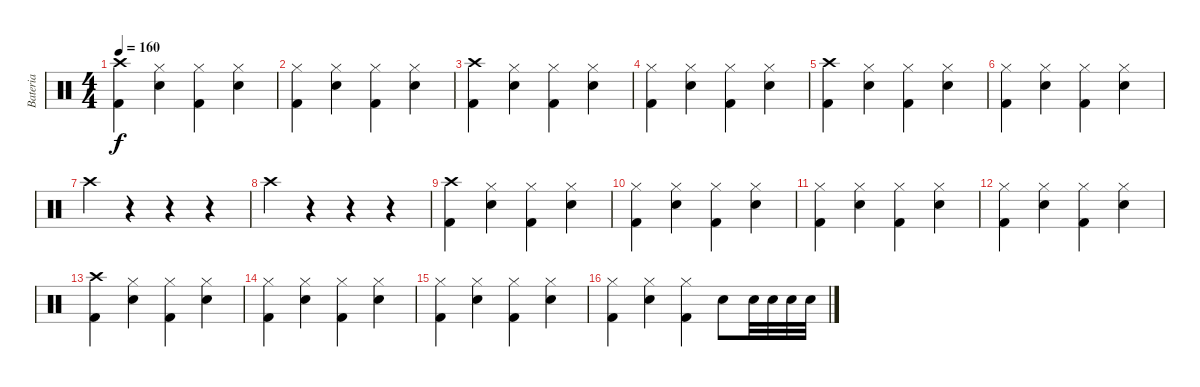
\track ("Bateria" "Bateria") {instrument percussion}
\staff {score}
\articulation defaults
\ts (4 4)
\tempo 160
\clef neutral
\ks c
("Crash high (hit)" "Kick (hit) 2").4{dy f} ("Hi-Hat (closed)" "Snare (hit) 2").4 ("Hi-Hat (closed)" "Kick (hit) 2").4 ("Hi-Hat (closed)" "Snare (hit) 2").4 |
("Hi-Hat (closed)" "Kick (hit) 2").4 ("Hi-Hat (closed)" "Snare (hit) 2").4 ("Hi-Hat (closed)" "Kick (hit) 2").4 ("Hi-Hat (closed)" "Snare (hit) 2").4 |
("Crash high (hit)" "Kick (hit) 2").4 ("Hi-Hat (closed)" "Snare (hit) 2").4 ("Hi-Hat (closed)" "Kick (hit) 2").4 ("Hi-Hat (closed)" "Snare (hit) 2").4 |
("Hi-Hat (closed)" "Kick (hit) 2").4 ("Hi-Hat (closed)" "Snare (hit) 2").4 ("Hi-Hat (closed)" "Kick (hit) 2").4 ("Hi-Hat (closed)" "Snare (hit) 2").4 |
("Crash high (hit)" "Kick (hit) 2").4 ("Hi-Hat (closed)" "Snare (hit) 2").4 ("Hi-Hat (closed)" "Kick (hit) 2").4 ("Hi-Hat (closed)" "Snare (hit) 2").4 |
("Hi-Hat (closed)" "Kick (hit) 2").4 ("Hi-Hat (closed)" "Snare (hit) 2").4 ("Hi-Hat (closed)" "Kick (hit) 2").4 ("Hi-Hat (closed)" "Snare (hit) 2").4 |
"Crash high (hit)".4 r.4 r.4 r.4 |
"Crash high (hit)".4 r.4 r.4 r.4 |
("Crash high (hit)" "Kick (hit) 2").4 ("Hi-Hat (closed)" "Snare (hit) 2").4 ("Hi-Hat (closed)" "Kick (hit) 2").4 ("Hi-Hat (closed)" "Snare (hit) 2").4 |
("Hi-Hat (closed)" "Kick (hit) 2").4 ("Hi-Hat (closed)" "Snare (hit) 2").4 ("Hi-Hat (closed)" "Kick (hit) 2").4 ("Hi-Hat (closed)" "Snare (hit) 2").4 |
("Hi-Hat (closed)" "Kick (hit) 2").4 ("Hi-Hat (closed)" "Snare (hit) 2").4 ("Hi-Hat (closed)" "Kick (hit) 2").4 ("Hi-Hat (closed)" "Snare (hit) 2").4 |
("Hi-Hat (closed)" "Kick (hit) 2").4 ("Hi-Hat (closed)" "Snare (hit) 2").4 ("Hi-Hat (closed)" "Kick (hit) 2").4 ("Hi-Hat (closed)" "Snare (hit) 2").4 |
("Crash high (hit)" "Kick (hit) 2").4 ("Hi-Hat (closed)" "Snare (hit) 2").4 ("Hi-Hat (closed)" "Kick (hit) 2").4 ("Hi-Hat (closed)" "Snare (hit) 2").4 |
("Hi-Hat (closed)" "Kick (hit) 2").4 ("Hi-Hat (closed)" "Snare (hit) 2").4 ("Hi-Hat (closed)" "Kick (hit) 2").4 ("Hi-Hat (closed)" "Snare (hit) 2").4 |
("Hi-Hat (closed)" "Kick (hit) 2").4 ("Hi-Hat (closed)" "Snare (hit) 2").4 ("Hi-Hat (closed)" "Kick (hit) 2").4 ("Hi-Hat (closed)" "Snare (hit) 2").4 |
("Hi-Hat (closed)" "Kick (hit) 2").4 ("Hi-Hat (closed)" "Snare (hit) 2").4 ("Hi-Hat (closed)" "Kick (hit) 2").4 "Snare (hit) 2".8 "Snare (hit) 2".32 "Snare (hit) 2".32 "Snare (hit) 2".32 "Snare (hit) 2".32
